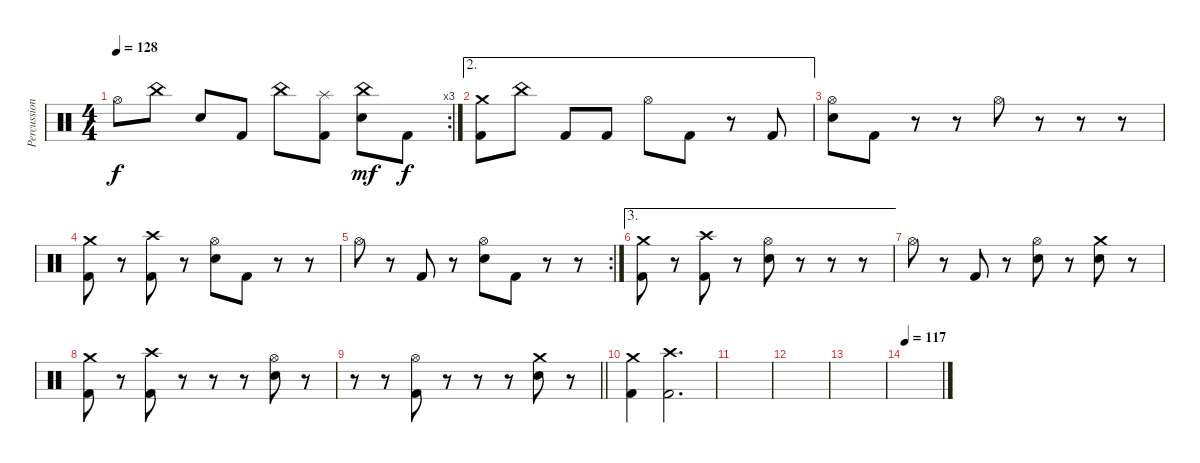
\track ("Percussion" "Percussion") {instrument percussion}
\staff {score}
\articulation defaults
\rc 3
\ts (4 4)
\tempo 128
\clef neutral
\ks c "Hi-Hat (open)".8{dy f} "China (hit)".8 "Snare (hit) 2".8 "Kick (hit) 2".8 "China (hit)".8
("Splash (hit)" "Kick (hit) 2").8 ("China (hit)" "Snare (hit) 2").8{dy mf} "Kick (hit) 2".8{dy f} |
\ae 2
("Crash medium (hit)" "Kick (hit) 2").8 "China (hit)".8 "Kick (hit) 2".8 "Kick (hit) 2".8 "Hi-Hat (open)".8 "Kick (hit) 2".8 r.8 "Kick (hit) 2".8 |
("Hi-Hat (open)" "Snare (hit) 2").8 "Kick (hit) 2".8 r.8 r.8 "Hi-Hat (open)".8 r.8 r.8 r.8 |
("Crash medium (hit)" "Kick (hit) 2").8 r.8 ("Crash high (hit)" "Kick (hit) 2").8 r.8 ("Hi-Hat (open)" "Snare (hit) 2").8 "Kick (hit) 2".8 r.8 r.8 |
\rc 2 "Hi-Hat (open)".8
r.8 "Kick (hit) 2".8 r.8 ("Hi-Hat (open)" "Snare (hit) 2").8 "Kick (hit) 2".8 r.8 r.8 |
\ae 3
("Crash medium (hit)" "Kick (hit) 2").8 r.8 ("Crash high (hit)" "Kick (hit) 2").8 r.8 ("Hi-Hat (open)" "Snare (hit) 2").8 r.8 r.8 r.8 |
"Hi-Hat (open)".8 r.8 "Kick (hit) 2".8 r.8 ("Hi-Hat (open)" "Snare (hit) 2").8 r.8 ("Crash medium (hit)" "Snare (hit) 2").8 r.8 |
("Crash medium (hit)" "Kick (hit) 2").8 r.8 ("Crash high (hit)" "Kick (hit) 2").8 r.8 r.8 r.8 ("Hi-Hat (open)" "Snare (hit) 2").8 r.8 |
\barLineRight lightlight
r.8 r.8 ("Hi-Hat (open)" "Kick (hit) 2").8 r.8 r.8 r.8 ("Crash medium (hit)" "Snare (hit) 2").8 r.8 |
("Crash medium (hit)" "Kick (hit) 2").4 ("Crash high (hit)" "Kick (hit) 2").2{d} |
|
|
|
\tempo 117
